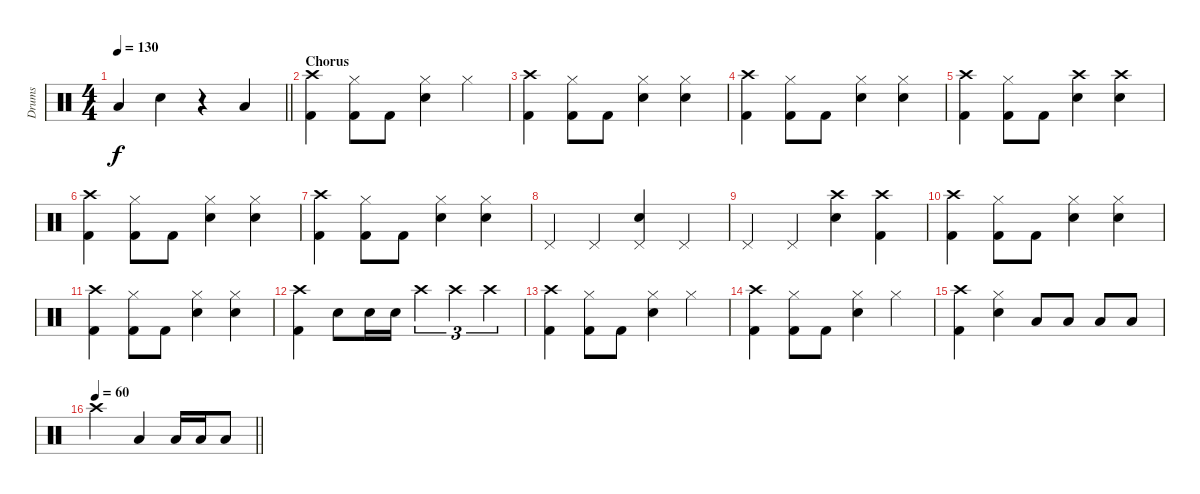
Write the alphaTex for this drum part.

\track ("Drums" "Drums") {instrument percussion}
\staff {score}
\articulation defaults
\ts (4 4)
\tempo 130
\clef neutral
\barLineRight lightlight
\ks c "Low Tom (hit)".4{dy f} "Snare (hit) 2".4
r.4 "Low Tom (hit)".4 |
\section ("" "Chorus")
("Crash high (hit)" "Kick (hit) 2").4 ("Hi-Hat (closed)" "Kick (hit) 2").8 "Kick (hit) 2".8 ("Hi-Hat (closed)" "Snare (hit) 2").4 "Hi-Hat (closed)".4 |
("Crash high (hit)" "Kick (hit) 2").4 ("Hi-Hat (closed)" "Kick (hit) 2").8 "Kick (hit) 2".8 ("Hi-Hat (closed)" "Snare (hit) 2").4 ("Hi-Hat (closed)" "Snare (hit) 2").4 |
("Crash high (hit)" "Kick (hit) 2").4 ("Hi-Hat (closed)" "Kick (hit) 2").8 "Kick (hit) 2".8 ("Hi-Hat (closed)" "Snare (hit) 2").4 ("Hi-Hat (closed)" "Snare (hit) 2").4 |
("Crash high (hit)" "Kick (hit) 2").4 ("Hi-Hat (closed)" "Kick (hit) 2").8 "Kick (hit) 2".8 ("Crash high (hit)" "Snare (hit) 2").4 ("Crash high (hit)" "Snare (hit) 2").4 |
("Crash high (hit)" "Kick (hit) 2").4 ("Hi-Hat (closed)" "Kick (hit) 2").8 "Kick (hit) 2".8 ("Hi-Hat (closed)" "Snare (hit) 2").4 ("Hi-Hat (closed)" "Snare (hit) 2").4 |
("Crash high (hit)" "Kick (hit) 2").4 ("Hi-Hat (closed)" "Kick (hit) 2").8 "Kick (hit) 2".8 ("Hi-Hat (closed)" "Snare (hit) 2").4 ("Hi-Hat (closed)" "Snare (hit) 2").4 |
"Pedal Hi-Hat (hit)".4 "Pedal Hi-Hat (hit)".4 ("Pedal Hi-Hat (hit)" "Snare (hit) 2").4 "Pedal Hi-Hat (hit)".4 |
"Pedal Hi-Hat (hit)".4 "Pedal Hi-Hat (hit)".4 ("Crash high (hit)" "Snare (hit) 2").4 ("Crash high (hit)" "Kick (hit) 2").4 |
("Crash high (hit)" "Kick (hit) 2").4 ("Hi-Hat (closed)" "Kick (hit) 2").8 "Kick (hit) 2".8 ("Hi-Hat (closed)" "Snare (hit) 2").4 ("Hi-Hat (closed)" "Snare (hit) 2").4 |
("Crash high (hit)" "Kick (hit) 2").4 ("Hi-Hat (closed)" "Kick (hit) 2").8 "Kick (hit) 2".8 ("Hi-Hat (closed)" "Snare (hit) 2").4 ("Hi-Hat (closed)" "Snare (hit) 2").4 |
("Crash high (hit)" "Kick (hit) 2").4 "Snare (hit) 2".8 "Snare (hit) 2".16 "Snare (hit) 2".16 "Crash high (hit)".4{tu (3 2)} "Crash high (hit)".4{tu (3 2)} "Crash high (hit)".4{tu (3 2)} |
("Crash high (hit)" "Kick (hit) 2").4 ("Hi-Hat (closed)" "Kick (hit) 2").8 "Kick (hit) 2".8 ("Hi-Hat (closed)" "Snare (hit) 2").4 "Hi-Hat (closed)".4 |
("Crash high (hit)" "Kick (hit) 2").4 ("Hi-Hat (closed)" "Kick (hit) 2").8 "Kick (hit) 2".8 ("Hi-Hat (closed)" "Snare (hit) 2").4 "Hi-Hat (closed)".4 |
("Crash high (hit)" "Kick (hit) 2").4 ("Hi-Hat (closed)" "Snare (hit) 2").4 "Low Tom (hit)".8 "Low Tom (hit)".8 "Low Tom (hit)".8 "Low Tom (hit)".8 |
\tempo 60
\barLineRight lightlight "Crash high (hit)".2 "Low Tom (hit)".4 "Low Tom (hit)".16 "Low Tom (hit)".16 "Low Tom (hit)".8
